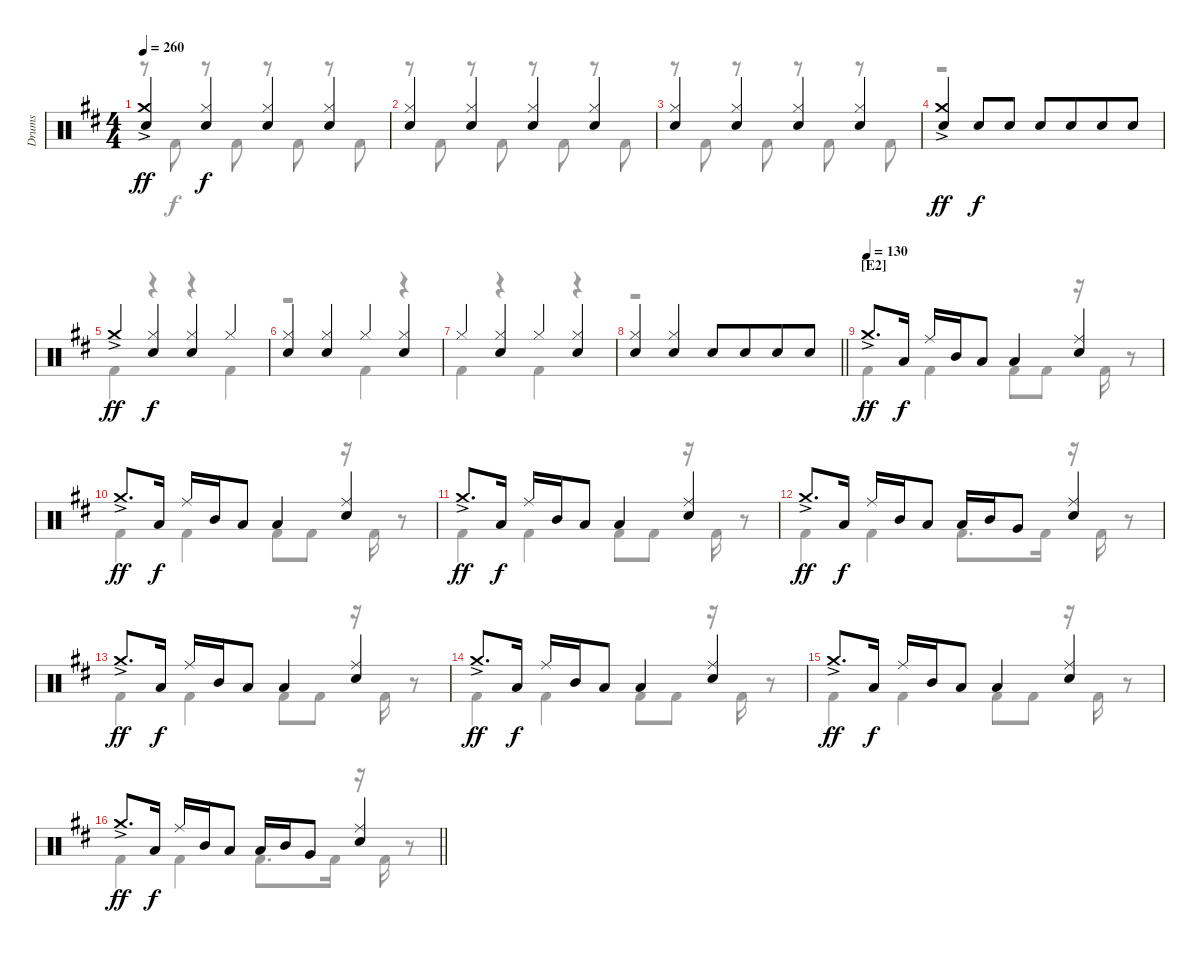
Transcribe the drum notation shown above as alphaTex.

\track ("Drums" "Drums") {instrument percussion}
\staff {score}
\articulation defaults
\voice
\ts (4 4)
\tempo 260
\clef neutral
\ks bminor
("Crash medium (hit)"{ac} "Snare (hit) 2").4{dy ff} ("Hi-Hat (closed)" "Snare (hit) 2").4{dy f} ("Hi-Hat (closed)" "Snare (hit) 2").4 ("Hi-Hat (closed)" "Snare (hit) 2").4 |
("Hi-Hat (closed)" "Snare (hit) 2").4 ("Hi-Hat (closed)" "Snare (hit) 2").4 ("Hi-Hat (closed)" "Snare (hit) 2").4 ("Hi-Hat (closed)" "Snare (hit) 2").4 |
("Hi-Hat (closed)" "Snare (hit) 2").4 ("Hi-Hat (closed)" "Snare (hit) 2").4 ("Hi-Hat (closed)" "Snare (hit) 2").4 ("Hi-Hat (closed)" "Snare (hit) 2").4 |
("Crash medium (hit)"{ac} "Snare (hit) 2").4{dy ff} "Snare (hit) 2".8{dy f} "Snare (hit) 2".8 "Snare (hit) 2".8 "Snare (hit) 2".8{beam merge} "Snare (hit) 2".8 "Snare (hit) 2".8 |
"Crash medium (hit)"{ac}.4{dy ff} ("Hi-Hat (closed)" "Snare (hit) 2").4{dy f} ("Hi-Hat (closed)" "Snare (hit) 2").4 "Hi-Hat (closed)".4 |
("Hi-Hat (closed)" "Snare (hit) 2").4 ("Hi-Hat (closed)" "Snare (hit) 2").4 "Hi-Hat (closed)".4 ("Hi-Hat (closed)" "Snare (hit) 2").4 |
"Hi-Hat (closed)".4 ("Hi-Hat (closed)" "Snare (hit) 2").4 "Hi-Hat (closed)".4 ("Hi-Hat (closed)" "Snare (hit) 2").4 |
\barLineRight lightlight
("Hi-Hat (closed)" "Snare (hit) 2").4 ("Hi-Hat (closed)" "Snare (hit) 2").4 "Snare (hit) 2".8 "Snare (hit) 2".8{beam merge} "Snare (hit) 2".8 "Snare (hit) 2".8 |
\section ("" "[E2]")
\tempo (130)
"Crash medium (hit)"{ac}.8{d dy ff} "Low Tom (hit)".16{dy f} "Ride (middle)".16 "Mid Tom (hit)".16 "Low Tom (hit)".8 "Low Tom (hit)".4 ("Ride (middle)" "Snare (hit) 2").4 |
"Crash medium (hit)"{ac}.8{d dy ff} "Low Tom (hit)".16{dy f} "Ride (middle)".16 "Mid Tom (hit)".16 "Low Tom (hit)".8 "Low Tom (hit)".4 ("Ride (middle)" "Snare (hit) 2").4 |
"Crash medium (hit)"{ac}.8{d dy ff} "Low Tom (hit)".16{dy f} "Ride (middle)".16 "Mid Tom (hit)".16 "Low Tom (hit)".8 "Low Tom (hit)".4 ("Ride (middle)" "Snare (hit) 2").4 |
"Crash medium (hit)"{ac}.8{d dy ff} "Low Tom (hit)".16{dy f} "Ride (middle)".16 "Mid Tom (hit)".16 "Low Tom (hit)".8 "Low Tom (hit)".16 "Mid Tom (hit)".16 "Very Low Tom (hit)".8 ("Ride (middle)" "Snare (hit) 2").4 |
"Crash medium (hit)"{ac}.8{d dy ff} "Low Tom (hit)".16{dy f} "Ride (middle)".16 "Mid Tom (hit)".16 "Low Tom (hit)".8 "Low Tom (hit)".4 ("Ride (middle)" "Snare (hit) 2").4 |
"Crash medium (hit)"{ac}.8{d dy ff} "Low Tom (hit)".16{dy f} "Ride (middle)".16 "Mid Tom (hit)".16 "Low Tom (hit)".8 "Low Tom (hit)".4 ("Ride (middle)" "Snare (hit) 2").4 |
"Crash medium (hit)"{ac}.8{d dy ff} "Low Tom (hit)".16{dy f} "Ride (middle)".16 "Mid Tom (hit)".16 "Low Tom (hit)".8 "Low Tom (hit)".4 ("Ride (middle)" "Snare (hit) 2").4 |
\barLineRight lightlight "Crash medium (hit)"{ac}.8{d dy ff} "Low Tom (hit)".16{dy f} "Ride (middle)".16 "Mid Tom (hit)".16 "Low Tom (hit)".8 "Low Tom (hit)".16 "Mid Tom (hit)".16 "Very Low Tom (hit)".8
("Ride (middle)" "Snare (hit) 2").4
\voice
\clef neutral
\ottava regular
\simile none
\ks bminor
r.8{dy f} "Kick (hit) 2".8 r.8 "Kick (hit) 2".8 r.8 "Kick (hit) 2".8 r.8 "Kick (hit) 2".8 |
r.8 "Kick (hit) 2".8 r.8 "Kick (hit) 2".8 r.8 "Kick (hit) 2".8 r.8 "Kick (hit) 2".8 |
r.8 "Kick (hit) 2".8 r.8 "Kick (hit) 2".8 r.8 "Kick (hit) 2".8 r.8 "Kick (hit) 2".8 |
r.1 |
"Kick (hit) 2".4 r.4 r.4 "Kick (hit) 2".4 |
r.2 "Kick (hit) 2".4 r.4 |
"Kick (hit) 2".4 r.4 "Kick (hit) 2".4 r.4 |
\barLineRight lightlight
r.1 |
"Kick (hit) 2".4 "Kick (hit) 2".4 "Kick (hit) 2".8 "Kick (hit) 2".8 r.16 "Kick (hit) 2".16 r.8 |
"Kick (hit) 2".4 "Kick (hit) 2".4 "Kick (hit) 2".8 "Kick (hit) 2".8 r.16 "Kick (hit) 2".16 r.8 |
"Kick (hit) 2".4 "Kick (hit) 2".4 "Kick (hit) 2".8 "Kick (hit) 2".8 r.16 "Kick (hit) 2".16 r.8 |
"Kick (hit) 2".4 "Kick (hit) 2".4 "Kick (hit) 2".8{d} "Kick (hit) 2".16 r.16 "Kick (hit) 2".16 r.8 |
"Kick (hit) 2".4 "Kick (hit) 2".4 "Kick (hit) 2".8 "Kick (hit) 2".8 r.16 "Kick (hit) 2".16 r.8 |
"Kick (hit) 2".4 "Kick (hit) 2".4 "Kick (hit) 2".8 "Kick (hit) 2".8 r.16 "Kick (hit) 2".16 r.8 |
"Kick (hit) 2".4 "Kick (hit) 2".4 "Kick (hit) 2".8 "Kick (hit) 2".8 r.16 "Kick (hit) 2".16 r.8 |
\barLineRight lightlight "Kick (hit) 2".4 "Kick (hit) 2".4 "Kick (hit) 2".8{d} "Kick (hit) 2".16
r.16 "Kick (hit) 2".16 r.8
